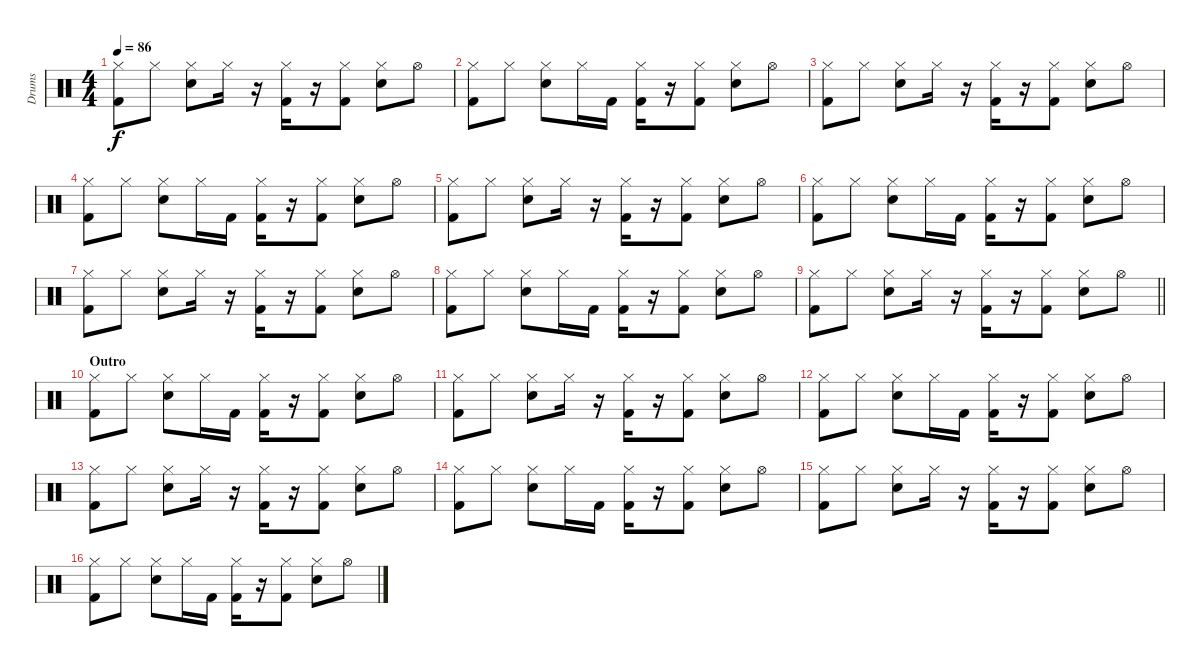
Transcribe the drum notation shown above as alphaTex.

\track ("Drums" "Drums") {instrument percussion}
\staff {score}
\articulation defaults
\ts (4 4)
\tempo 86
\clef neutral
\ks c
("Kick (hit) 2" "Hi-Hat (closed)").8{dy f} "Hi-Hat (closed)".8 ("Snare (hit) 2" "Hi-Hat (closed)").8 "Hi-Hat (closed)".16 r.16 ("Kick (hit) 2" "Hi-Hat (closed)").16 r.16 ("Kick (hit) 2" "Hi-Hat (closed)").8 ("Snare (hit) 2" "Hi-Hat (closed)").8 "Hi-Hat (open)".8 |
("Kick (hit) 2" "Hi-Hat (closed)").8 "Hi-Hat (closed)".8 ("Snare (hit) 2" "Hi-Hat (closed)").8 "Hi-Hat (closed)".16 "Kick (hit) 2".16 ("Kick (hit) 2" "Hi-Hat (closed)").16 r.16 ("Kick (hit) 2" "Hi-Hat (closed)").8 ("Snare (hit) 2" "Hi-Hat (closed)").8 "Hi-Hat (open)".8 |
("Kick (hit) 2" "Hi-Hat (closed)").8 "Hi-Hat (closed)".8 ("Snare (hit) 2" "Hi-Hat (closed)").8 "Hi-Hat (closed)".16 r.16 ("Kick (hit) 2" "Hi-Hat (closed)").16 r.16 ("Kick (hit) 2" "Hi-Hat (closed)").8 ("Snare (hit) 2" "Hi-Hat (closed)").8 "Hi-Hat (open)".8 |
("Kick (hit) 2" "Hi-Hat (closed)").8 "Hi-Hat (closed)".8 ("Snare (hit) 2" "Hi-Hat (closed)").8 "Hi-Hat (closed)".16 "Kick (hit) 2".16 ("Kick (hit) 2" "Hi-Hat (closed)").16 r.16 ("Kick (hit) 2" "Hi-Hat (closed)").8 ("Snare (hit) 2" "Hi-Hat (closed)").8 "Hi-Hat (open)".8 |
("Kick (hit) 2" "Hi-Hat (closed)").8 "Hi-Hat (closed)".8 ("Snare (hit) 2" "Hi-Hat (closed)").8 "Hi-Hat (closed)".16 r.16 ("Kick (hit) 2" "Hi-Hat (closed)").16 r.16 ("Kick (hit) 2" "Hi-Hat (closed)").8 ("Snare (hit) 2" "Hi-Hat (closed)").8 "Hi-Hat (open)".8 |
("Kick (hit) 2" "Hi-Hat (closed)").8 "Hi-Hat (closed)".8 ("Snare (hit) 2" "Hi-Hat (closed)").8 "Hi-Hat (closed)".16 "Kick (hit) 2".16 ("Kick (hit) 2" "Hi-Hat (closed)").16 r.16 ("Kick (hit) 2" "Hi-Hat (closed)").8 ("Snare (hit) 2" "Hi-Hat (closed)").8 "Hi-Hat (open)".8 |
("Kick (hit) 2" "Hi-Hat (closed)").8 "Hi-Hat (closed)".8 ("Snare (hit) 2" "Hi-Hat (closed)").8 "Hi-Hat (closed)".16 r.16 ("Kick (hit) 2" "Hi-Hat (closed)").16 r.16 ("Kick (hit) 2" "Hi-Hat (closed)").8 ("Snare (hit) 2" "Hi-Hat (closed)").8 "Hi-Hat (open)".8 |
("Kick (hit) 2" "Hi-Hat (closed)").8 "Hi-Hat (closed)".8 ("Snare (hit) 2" "Hi-Hat (closed)").8 "Hi-Hat (closed)".16 "Kick (hit) 2".16 ("Kick (hit) 2" "Hi-Hat (closed)").16 r.16 ("Kick (hit) 2" "Hi-Hat (closed)").8 ("Snare (hit) 2" "Hi-Hat (closed)").8 "Hi-Hat (open)".8 |
\barLineRight lightlight
("Kick (hit) 2" "Hi-Hat (closed)").8 "Hi-Hat (closed)".8 ("Snare (hit) 2" "Hi-Hat (closed)").8 "Hi-Hat (closed)".16 r.16 ("Kick (hit) 2" "Hi-Hat (closed)").16 r.16 ("Kick (hit) 2" "Hi-Hat (closed)").8 ("Snare (hit) 2" "Hi-Hat (closed)").8 "Hi-Hat (open)".8 |
\section ("" "Outro")
("Kick (hit) 2" "Hi-Hat (closed)").8 "Hi-Hat (closed)".8 ("Snare (hit) 2" "Hi-Hat (closed)").8 "Hi-Hat (closed)".16 "Kick (hit) 2".16 ("Kick (hit) 2" "Hi-Hat (closed)").16 r.16 ("Kick (hit) 2" "Hi-Hat (closed)").8 ("Snare (hit) 2" "Hi-Hat (closed)").8 "Hi-Hat (open)".8 |
("Kick (hit) 2" "Hi-Hat (closed)").8 "Hi-Hat (closed)".8 ("Snare (hit) 2" "Hi-Hat (closed)").8 "Hi-Hat (closed)".16 r.16 ("Kick (hit) 2" "Hi-Hat (closed)").16 r.16 ("Kick (hit) 2" "Hi-Hat (closed)").8 ("Snare (hit) 2" "Hi-Hat (closed)").8 "Hi-Hat (open)".8 |
("Kick (hit) 2" "Hi-Hat (closed)").8 "Hi-Hat (closed)".8 ("Snare (hit) 2" "Hi-Hat (closed)").8 "Hi-Hat (closed)".16 "Kick (hit) 2".16 ("Kick (hit) 2" "Hi-Hat (closed)").16 r.16 ("Kick (hit) 2" "Hi-Hat (closed)").8 ("Snare (hit) 2" "Hi-Hat (closed)").8 "Hi-Hat (open)".8 |
("Kick (hit) 2" "Hi-Hat (closed)").8 "Hi-Hat (closed)".8 ("Snare (hit) 2" "Hi-Hat (closed)").8 "Hi-Hat (closed)".16 r.16 ("Kick (hit) 2" "Hi-Hat (closed)").16 r.16 ("Kick (hit) 2" "Hi-Hat (closed)").8 ("Snare (hit) 2" "Hi-Hat (closed)").8 "Hi-Hat (open)".8 |
("Kick (hit) 2" "Hi-Hat (closed)").8 "Hi-Hat (closed)".8 ("Snare (hit) 2" "Hi-Hat (closed)").8 "Hi-Hat (closed)".16 "Kick (hit) 2".16 ("Kick (hit) 2" "Hi-Hat (closed)").16 r.16 ("Kick (hit) 2" "Hi-Hat (closed)").8 ("Snare (hit) 2" "Hi-Hat (closed)").8 "Hi-Hat (open)".8 |
("Kick (hit) 2" "Hi-Hat (closed)").8 "Hi-Hat (closed)".8 ("Snare (hit) 2" "Hi-Hat (closed)").8 "Hi-Hat (closed)".16 r.16 ("Kick (hit) 2" "Hi-Hat (closed)").16 r.16 ("Kick (hit) 2" "Hi-Hat (closed)").8 ("Snare (hit) 2" "Hi-Hat (closed)").8 "Hi-Hat (open)".8 |
("Kick (hit) 2" "Hi-Hat (closed)").8 "Hi-Hat (closed)".8 ("Snare (hit) 2" "Hi-Hat (closed)").8 "Hi-Hat (closed)".16 "Kick (hit) 2".16 ("Kick (hit) 2" "Hi-Hat (closed)").16 r.16 ("Kick (hit) 2" "Hi-Hat (closed)").8 ("Snare (hit) 2" "Hi-Hat (closed)").8 "Hi-Hat (open)".8
